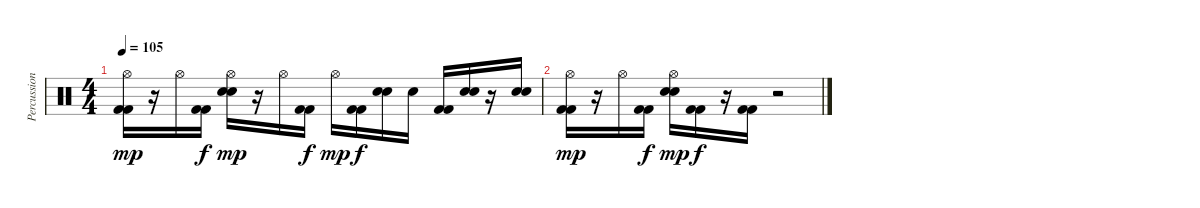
\track ("Percussions" "Percussion") {instrument percussion}
\staff {score}
\articulation defaults
\ts (4 4)
\tempo 105
\clef neutral
\ks c
("Hi-Hat (open)" "Kick (hit) 2" "Kick (hit) 2").16{dy mp} r.16 "Hi-Hat (open)".16 ("Kick (hit) 2" "Kick (hit) 2").16{dy f} ("Hi-Hat (open)" "Electric Snare (hit)" "Electric Snare (hit)").16{dy mp} r.16 "Hi-Hat (open)".16 ("Kick (hit) 2" "Kick (hit) 2").16{dy f} "Hi-Hat (open)".16{dy mp} ("Kick (hit) 2" "Kick (hit) 2").16{dy f} ("Electric Snare (hit)" "Electric Snare (hit)").16 "Electric Snare (hit)".16 ("Kick (hit) 2" "Kick (hit) 2").16 ("Electric Snare (hit)" "Electric Snare (hit)").16 r.16 ("Electric Snare (hit)" "Electric Snare (hit)").16 |
("Hi-Hat (open)" "Kick (hit) 2" "Kick (hit) 2").16{dy mp} r.16 "Hi-Hat (open)".16 ("Kick (hit) 2" "Kick (hit) 2").16{dy f} ("Hi-Hat (open)" "Electric Snare (hit)" "Electric Snare (hit)").16{dy mp} ("Kick (hit) 2" "Kick (hit) 2").16{dy f} r.16 ("Kick (hit) 2" "Kick (hit) 2").16 r.2
